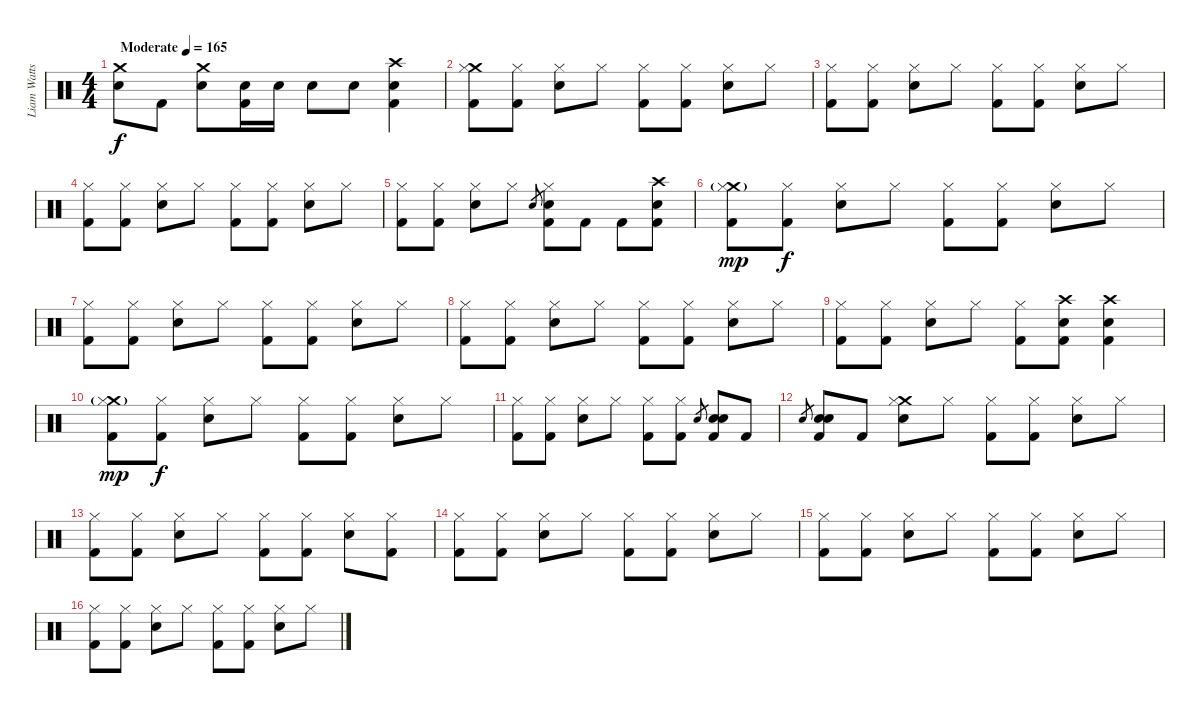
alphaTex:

\track ("Liam Watts (Percussion)" "Liam Watts") {instrument percussion}
\staff {score}
\articulation defaults
\ts (4 4)
\tempo (165 "Moderate")
\clef neutral
\ks c
("Crash medium (hit)" "Snare (hit) 2").8{dy f} "Kick (hit) 2".8 ("Crash medium (hit)" "Snare (hit) 2").8 ("Snare (hit) 2" "Kick (hit) 2").16 "Snare (hit) 2".16 "Snare (hit) 2".8 "Snare (hit) 2".8 ("Crash high (hit)" "Snare (hit) 2" "Kick (hit) 2").4 |
("Crash medium (hit)" "Hi-Hat (closed)" "Kick (hit) 2").8 ("Hi-Hat (closed)" "Kick (hit) 2").8 ("Hi-Hat (closed)" "Snare (hit) 2").8 "Hi-Hat (closed)".8 ("Hi-Hat (closed)" "Kick (hit) 2").8 ("Hi-Hat (closed)" "Kick (hit) 2").8 ("Hi-Hat (closed)" "Snare (hit) 2").8 "Hi-Hat (closed)".8 |
("Hi-Hat (closed)" "Kick (hit) 2").8 ("Hi-Hat (closed)" "Kick (hit) 2").8 ("Hi-Hat (closed)" "Snare (hit) 2").8 "Hi-Hat (closed)".8 ("Hi-Hat (closed)" "Kick (hit) 2").8 ("Hi-Hat (closed)" "Kick (hit) 2").8 ("Hi-Hat (closed)" "Snare (hit) 2").8 "Hi-Hat (closed)".8 |
("Hi-Hat (closed)" "Kick (hit) 2").8 ("Hi-Hat (closed)" "Kick (hit) 2").8 ("Hi-Hat (closed)" "Snare (hit) 2").8 "Hi-Hat (closed)".8 ("Hi-Hat (closed)" "Kick (hit) 2").8 ("Hi-Hat (closed)" "Kick (hit) 2").8 ("Hi-Hat (closed)" "Snare (hit) 2").8 "Hi-Hat (closed)".8 |
("Hi-Hat (closed)" "Kick (hit) 2").8 ("Hi-Hat (closed)" "Kick (hit) 2").8 ("Hi-Hat (closed)" "Snare (hit) 2").8 "Hi-Hat (closed)".8 "Snare (hit) 2".8{gr} ("Hi-Hat (closed)" "Snare (hit) 2" "Kick (hit) 2").8 "Kick (hit) 2".8 "Kick (hit) 2".8 ("Crash high (hit)" "Snare (hit) 2" "Kick (hit) 2").8 |
("Crash medium (hit)"{g} "Hi-Hat (closed)" "Kick (hit) 2").8{dy mp} ("Hi-Hat (closed)" "Kick (hit) 2").8{dy f} ("Hi-Hat (closed)" "Snare (hit) 2").8 "Hi-Hat (closed)".8 ("Hi-Hat (closed)" "Kick (hit) 2").8 ("Hi-Hat (closed)" "Kick (hit) 2").8 ("Hi-Hat (closed)" "Snare (hit) 2").8 "Hi-Hat (closed)".8 |
("Hi-Hat (closed)" "Kick (hit) 2").8 ("Hi-Hat (closed)" "Kick (hit) 2").8 ("Hi-Hat (closed)" "Snare (hit) 2").8 "Hi-Hat (closed)".8 ("Hi-Hat (closed)" "Kick (hit) 2").8 ("Hi-Hat (closed)" "Kick (hit) 2").8 ("Hi-Hat (closed)" "Snare (hit) 2").8 "Hi-Hat (closed)".8 |
("Hi-Hat (closed)" "Kick (hit) 2").8 ("Hi-Hat (closed)" "Kick (hit) 2").8 ("Hi-Hat (closed)" "Snare (hit) 2").8 "Hi-Hat (closed)".8 ("Hi-Hat (closed)" "Kick (hit) 2").8 ("Hi-Hat (closed)" "Kick (hit) 2").8 ("Hi-Hat (closed)" "Snare (hit) 2").8 "Hi-Hat (closed)".8 |
("Hi-Hat (closed)" "Kick (hit) 2").8 ("Hi-Hat (closed)" "Kick (hit) 2").8 ("Hi-Hat (closed)" "Snare (hit) 2").8 "Hi-Hat (closed)".8 ("Hi-Hat (closed)" "Kick (hit) 2").8 ("Crash high (hit)" "Snare (hit) 2" "Kick (hit) 2").8 ("Crash high (hit)" "Snare (hit) 2" "Kick (hit) 2").4 |
("Crash medium (hit)"{g} "Hi-Hat (closed)" "Kick (hit) 2").8{dy mp} ("Hi-Hat (closed)" "Kick (hit) 2").8{dy f} ("Hi-Hat (closed)" "Snare (hit) 2").8 "Hi-Hat (closed)".8 ("Hi-Hat (closed)" "Kick (hit) 2").8 ("Hi-Hat (closed)" "Kick (hit) 2").8 ("Hi-Hat (closed)" "Snare (hit) 2").8 "Hi-Hat (closed)".8 |
("Hi-Hat (closed)" "Kick (hit) 2").8 ("Hi-Hat (closed)" "Kick (hit) 2").8 ("Hi-Hat (closed)" "Snare (hit) 2").8 "Hi-Hat (closed)".8 ("Hi-Hat (closed)" "Kick (hit) 2").8 ("Hi-Hat (closed)" "Kick (hit) 2").8 "Snare (hit) 2".8{gr} ("Snare (hit) 2" "Snare (hit) 2" "Kick (hit) 2").8 "Kick (hit) 2".8 |
"Snare (hit) 2".8{gr} ("Snare (hit) 2" "Snare (hit) 2" "Kick (hit) 2").8 "Kick (hit) 2".8 ("Crash medium (hit)" "Hi-Hat (closed)" "Snare (hit) 2").8 "Hi-Hat (closed)".8 ("Hi-Hat (closed)" "Kick (hit) 2").8 ("Hi-Hat (closed)" "Kick (hit) 2").8 ("Hi-Hat (closed)" "Snare (hit) 2").8 "Hi-Hat (closed)".8 |
("Hi-Hat (closed)" "Kick (hit) 2").8 ("Hi-Hat (closed)" "Kick (hit) 2").8 ("Hi-Hat (closed)" "Snare (hit) 2").8 "Hi-Hat (closed)".8 ("Hi-Hat (closed)" "Kick (hit) 2").8 ("Hi-Hat (closed)" "Kick (hit) 2").8 ("Hi-Hat (closed)" "Snare (hit) 2").8 ("Hi-Hat (closed)" "Kick (hit) 2").8 |
("Hi-Hat (closed)" "Kick (hit) 2").8 ("Hi-Hat (closed)" "Kick (hit) 2").8 ("Hi-Hat (closed)" "Snare (hit) 2").8 "Hi-Hat (closed)".8 ("Hi-Hat (closed)" "Kick (hit) 2").8 ("Hi-Hat (closed)" "Kick (hit) 2").8 ("Hi-Hat (closed)" "Snare (hit) 2").8 "Hi-Hat (closed)".8 |
("Hi-Hat (closed)" "Kick (hit) 2").8 ("Hi-Hat (closed)" "Kick (hit) 2").8 ("Hi-Hat (closed)" "Snare (hit) 2").8 "Hi-Hat (closed)".8 ("Hi-Hat (closed)" "Kick (hit) 2").8 ("Hi-Hat (closed)" "Kick (hit) 2").8 ("Hi-Hat (closed)" "Snare (hit) 2").8 "Hi-Hat (closed)".8 |
("Hi-Hat (closed)" "Kick (hit) 2").8 ("Hi-Hat (closed)" "Kick (hit) 2").8 ("Hi-Hat (closed)" "Snare (hit) 2").8 "Hi-Hat (closed)".8 ("Hi-Hat (closed)" "Kick (hit) 2").8 ("Hi-Hat (closed)" "Kick (hit) 2").8 ("Hi-Hat (closed)" "Snare (hit) 2").8 "Hi-Hat (closed)".8
